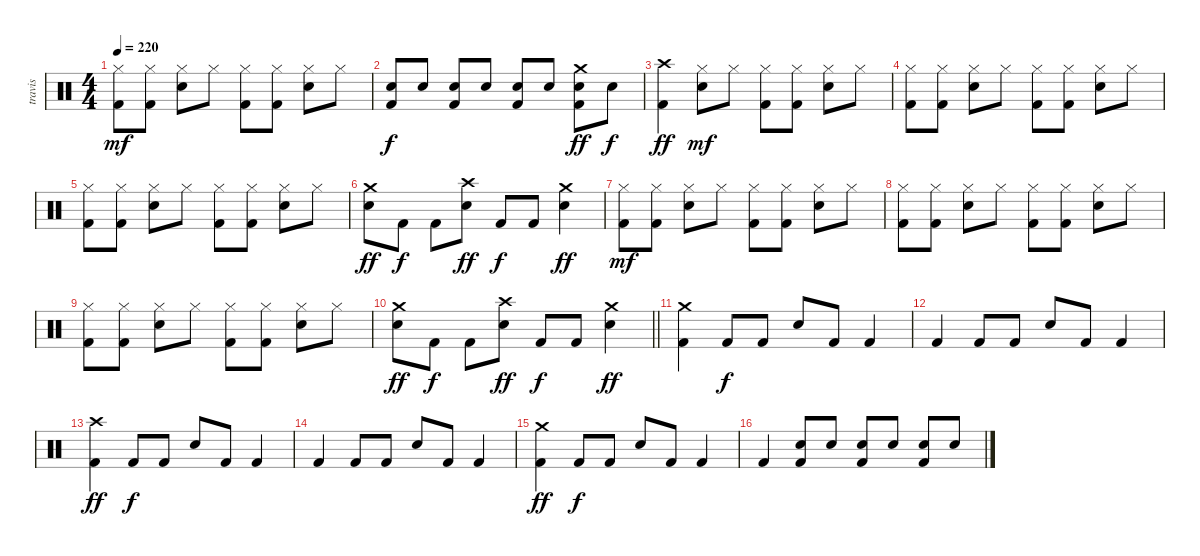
\track ("travis" "travis") {instrument percussion}
\staff {score}
\articulation defaults
\ts (4 4)
\tempo 220
\clef neutral
\ks c
("Hi-Hat (closed)" "Kick (hit) 2").8{dy mf} ("Hi-Hat (closed)" "Kick (hit) 2").8 ("Hi-Hat (closed)" "Electric Snare (hit)").8 "Hi-Hat (closed)".8 ("Hi-Hat (closed)" "Kick (hit) 2").8 ("Hi-Hat (closed)" "Kick (hit) 2").8 ("Hi-Hat (closed)" "Electric Snare (hit)").8 "Hi-Hat (closed)".8 |
("Electric Snare (hit)" "Kick (hit) 2").8{dy f} "Electric Snare (hit)".8 ("Electric Snare (hit)" "Kick (hit) 2").8 "Electric Snare (hit)".8 ("Electric Snare (hit)" "Kick (hit) 2").8 "Electric Snare (hit)".8 ("Crash medium (hit)" "Electric Snare (hit)" "Kick (hit) 2").8{dy ff} "Electric Snare (hit)".8{dy f} |
("Crash high (hit)" "Kick (hit) 2").4{dy ff} ("Hi-Hat (closed)" "Electric Snare (hit)").8{dy mf} "Hi-Hat (closed)".8 ("Hi-Hat (closed)" "Kick (hit) 2").8 ("Hi-Hat (closed)" "Kick (hit) 2").8 ("Hi-Hat (closed)" "Electric Snare (hit)").8 "Hi-Hat (closed)".8 |
("Hi-Hat (closed)" "Kick (hit) 2").8 ("Hi-Hat (closed)" "Kick (hit) 2").8 ("Hi-Hat (closed)" "Electric Snare (hit)").8 "Hi-Hat (closed)".8 ("Hi-Hat (closed)" "Kick (hit) 2").8 ("Hi-Hat (closed)" "Kick (hit) 2").8 ("Hi-Hat (closed)" "Electric Snare (hit)").8 "Hi-Hat (closed)".8 |
("Hi-Hat (closed)" "Kick (hit) 2").8 ("Hi-Hat (closed)" "Kick (hit) 2").8 ("Hi-Hat (closed)" "Electric Snare (hit)").8 "Hi-Hat (closed)".8 ("Hi-Hat (closed)" "Kick (hit) 2").8 ("Hi-Hat (closed)" "Kick (hit) 2").8 ("Hi-Hat (closed)" "Electric Snare (hit)").8 "Hi-Hat (closed)".8 |
("Crash medium (hit)" "Electric Snare (hit)").8{dy ff} "Kick (hit) 2".8{dy f} "Kick (hit) 2".8 ("Crash high (hit)" "Electric Snare (hit)").8{dy ff} "Kick (hit) 2".8{dy f} "Kick (hit) 2".8 ("Crash medium (hit)" "Electric Snare (hit)").4{dy ff} |
("Hi-Hat (closed)" "Kick (hit) 2").8{dy mf} ("Hi-Hat (closed)" "Kick (hit) 2").8 ("Hi-Hat (closed)" "Electric Snare (hit)").8 "Hi-Hat (closed)".8 ("Hi-Hat (closed)" "Kick (hit) 2").8 ("Hi-Hat (closed)" "Kick (hit) 2").8 ("Hi-Hat (closed)" "Electric Snare (hit)").8 "Hi-Hat (closed)".8 |
("Hi-Hat (closed)" "Kick (hit) 2").8 ("Hi-Hat (closed)" "Kick (hit) 2").8 ("Hi-Hat (closed)" "Electric Snare (hit)").8 "Hi-Hat (closed)".8 ("Hi-Hat (closed)" "Kick (hit) 2").8 ("Hi-Hat (closed)" "Kick (hit) 2").8 ("Hi-Hat (closed)" "Electric Snare (hit)").8 "Hi-Hat (closed)".8 |
("Hi-Hat (closed)" "Kick (hit) 2").8 ("Hi-Hat (closed)" "Kick (hit) 2").8 ("Hi-Hat (closed)" "Electric Snare (hit)").8 "Hi-Hat (closed)".8 ("Hi-Hat (closed)" "Kick (hit) 2").8 ("Hi-Hat (closed)" "Kick (hit) 2").8 ("Hi-Hat (closed)" "Electric Snare (hit)").8 "Hi-Hat (closed)".8 |
\barLineRight lightlight
("Crash medium (hit)" "Electric Snare (hit)").8{dy ff} "Kick (hit) 2".8{dy f} "Kick (hit) 2".8 ("Crash high (hit)" "Electric Snare (hit)").8{dy ff} "Kick (hit) 2".8{dy f} "Kick (hit) 2".8 ("Crash medium (hit)" "Electric Snare (hit)").4{dy ff} |
("Crash medium (hit)" "Kick (hit) 2").4 "Kick (hit) 2".8{dy f} "Kick (hit) 2".8 "Electric Snare (hit)".8 "Kick (hit) 2".8 "Kick (hit) 2".4 |
"Kick (hit) 2".4 "Kick (hit) 2".8 "Kick (hit) 2".8 "Electric Snare (hit)".8 "Kick (hit) 2".8 "Kick (hit) 2".4 |
("Crash high (hit)" "Kick (hit) 2").4{dy ff} "Kick (hit) 2".8{dy f} "Kick (hit) 2".8 "Electric Snare (hit)".8 "Kick (hit) 2".8 "Kick (hit) 2".4 |
"Kick (hit) 2".4 "Kick (hit) 2".8 "Kick (hit) 2".8 "Electric Snare (hit)".8 "Kick (hit) 2".8 "Kick (hit) 2".4 |
("Crash medium (hit)" "Kick (hit) 2").4{dy ff} "Kick (hit) 2".8{dy f} "Kick (hit) 2".8 "Electric Snare (hit)".8 "Kick (hit) 2".8 "Kick (hit) 2".4 |
"Kick (hit) 2".4 ("Electric Snare (hit)" "Kick (hit) 2").8 "Electric Snare (hit)".8 ("Electric Snare (hit)" "Kick (hit) 2").8 "Electric Snare (hit)".8 ("Electric Snare (hit)" "Kick (hit) 2").8 "Electric Snare (hit)".8
